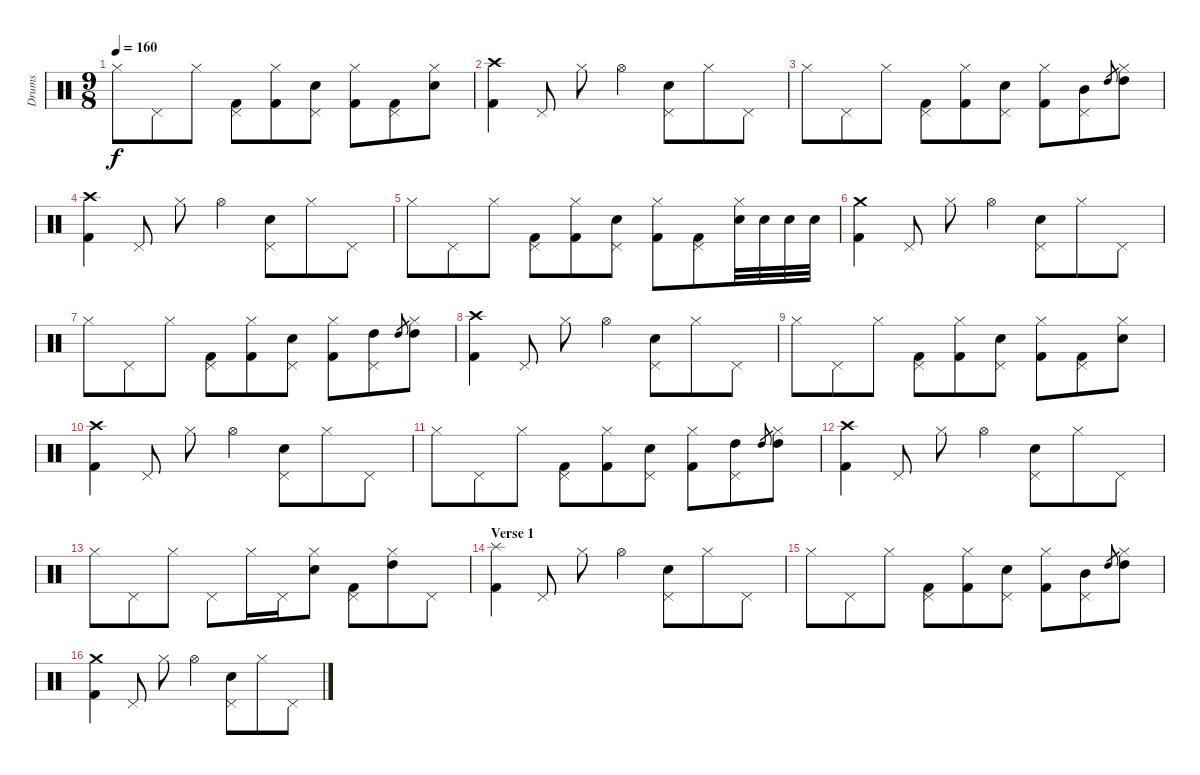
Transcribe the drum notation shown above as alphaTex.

\track ("Drums" "Drums") {instrument percussion}
\staff {score}
\articulation defaults
\ts (9 8)
\tempo 160
\clef neutral
\ks c "Hi-Hat (closed)".8{dy f} "Pedal Hi-Hat (hit)".8 "Hi-Hat (closed)".8
("Pedal Hi-Hat (hit)" "Kick (hit) 2").8 ("Hi-Hat (closed)" "Kick (hit) 2").8 ("Pedal Hi-Hat (hit)" "Electric Snare (hit)").8 ("Hi-Hat (closed)" "Kick (hit) 2").8 ("Pedal Hi-Hat (hit)" "Kick (hit) 2").8 ("Hi-Hat (closed)" "Electric Snare (hit)").8 |
("Crash high (hit)" "Kick (hit) 2").4 "Pedal Hi-Hat (hit)".8 "Hi-Hat (closed)".8 "Hi-Hat (open)".4 ("Pedal Hi-Hat (hit)" "Electric Snare (hit)").8 "Hi-Hat (closed)".8 "Pedal Hi-Hat (hit)".8 |
"Hi-Hat (closed)".8 "Pedal Hi-Hat (hit)".8 "Hi-Hat (closed)".8 ("Pedal Hi-Hat (hit)" "Kick (hit) 2").8 ("Hi-Hat (closed)" "Kick (hit) 2").8 ("Pedal Hi-Hat (hit)" "Electric Snare (hit)").8 ("Hi-Hat (closed)" "Kick (hit) 2").8 ("Pedal Hi-Hat (hit)" "Mid Tom (hit)").8 "High Tom (hit)".8{gr} ("Hi-Hat (closed)" "High Tom (hit)").8 |
("Crash high (hit)" "Kick (hit) 2").4 "Pedal Hi-Hat (hit)".8 "Hi-Hat (closed)".8 "Hi-Hat (open)".4 ("Pedal Hi-Hat (hit)" "Electric Snare (hit)").8 "Hi-Hat (closed)".8 "Pedal Hi-Hat (hit)".8 |
"Hi-Hat (closed)".8 "Pedal Hi-Hat (hit)".8 "Hi-Hat (closed)".8 ("Pedal Hi-Hat (hit)" "Kick (hit) 2").8 ("Hi-Hat (closed)" "Kick (hit) 2").8 ("Pedal Hi-Hat (hit)" "Electric Snare (hit)").8 ("Hi-Hat (closed)" "Kick (hit) 2").8 ("Pedal Hi-Hat (hit)" "Kick (hit) 2").8 ("Hi-Hat (closed)" "Electric Snare (hit)").32 "Electric Snare (hit)".32 "Electric Snare (hit)".32 "Electric Snare (hit)".32 |
("Crash medium (hit)" "Kick (hit) 2").4 "Pedal Hi-Hat (hit)".8 "Hi-Hat (closed)".8 "Hi-Hat (open)".4 ("Pedal Hi-Hat (hit)" "Electric Snare (hit)").8 "Hi-Hat (closed)".8 "Pedal Hi-Hat (hit)".8 |
"Hi-Hat (closed)".8 "Pedal Hi-Hat (hit)".8 "Hi-Hat (closed)".8 ("Pedal Hi-Hat (hit)" "Kick (hit) 2").8 ("Hi-Hat (closed)" "Kick (hit) 2").8 ("Pedal Hi-Hat (hit)" "Electric Snare (hit)").8 ("Hi-Hat (closed)" "Kick (hit) 2").8 ("Pedal Hi-Hat (hit)" "High Tom (hit)").8 "High Tom (hit)".8{gr} ("Hi-Hat (closed)" "High Tom (hit)").8 |
("Crash high (hit)" "Kick (hit) 2").4 "Pedal Hi-Hat (hit)".8 "Hi-Hat (closed)".8 "Hi-Hat (open)".4 ("Pedal Hi-Hat (hit)" "Electric Snare (hit)").8 "Hi-Hat (closed)".8 "Pedal Hi-Hat (hit)".8 |
"Hi-Hat (closed)".8 "Pedal Hi-Hat (hit)".8 "Hi-Hat (closed)".8 ("Pedal Hi-Hat (hit)" "Kick (hit) 2").8 ("Hi-Hat (closed)" "Kick (hit) 2").8 ("Pedal Hi-Hat (hit)" "Electric Snare (hit)").8 ("Hi-Hat (closed)" "Kick (hit) 2").8 ("Pedal Hi-Hat (hit)" "Kick (hit) 2").8 ("Hi-Hat (closed)" "Electric Snare (hit)").8 |
("Crash high (hit)" "Kick (hit) 2").4 "Pedal Hi-Hat (hit)".8 "Hi-Hat (closed)".8 "Hi-Hat (open)".4 ("Pedal Hi-Hat (hit)" "Electric Snare (hit)").8 "Hi-Hat (closed)".8 "Pedal Hi-Hat (hit)".8 |
"Hi-Hat (closed)".8 "Pedal Hi-Hat (hit)".8 "Hi-Hat (closed)".8 ("Pedal Hi-Hat (hit)" "Kick (hit) 2").8 ("Hi-Hat (closed)" "Kick (hit) 2").8 ("Pedal Hi-Hat (hit)" "Electric Snare (hit)").8 ("Hi-Hat (closed)" "Kick (hit) 2").8 ("Pedal Hi-Hat (hit)" "High Tom (hit)").8 "High Tom (hit)".8{gr} ("Hi-Hat (closed)" "High Tom (hit)").8 |
("Crash high (hit)" "Kick (hit) 2").4 "Pedal Hi-Hat (hit)".8 "Hi-Hat (closed)".8 "Hi-Hat (open)".4 ("Pedal Hi-Hat (hit)" "Electric Snare (hit)").8 "Hi-Hat (closed)".8 "Pedal Hi-Hat (hit)".8 |
"Hi-Hat (closed)".8 "Pedal Hi-Hat (hit)".8 "Hi-Hat (closed)".8 "Pedal Hi-Hat (hit)".8 "Hi-Hat (closed)".16 "Pedal Hi-Hat (hit)".16 ("Hi-Hat (closed)" "Electric Snare (hit)").8 ("Pedal Hi-Hat (hit)" "Kick (hit) 2").8 ("Hi-Hat (closed)" "High Tom (hit)").8 "Pedal Hi-Hat (hit)".8 |
\section ("" "Verse 1")
("Splash (hit)" "Kick (hit) 2").4 "Pedal Hi-Hat (hit)".8 "Hi-Hat (closed)".8 "Hi-Hat (open)".4 ("Pedal Hi-Hat (hit)" "Electric Snare (hit)").8 "Hi-Hat (closed)".8 "Pedal Hi-Hat (hit)".8 |
"Hi-Hat (closed)".8 "Pedal Hi-Hat (hit)".8 "Hi-Hat (closed)".8 ("Pedal Hi-Hat (hit)" "Kick (hit) 2").8 ("Hi-Hat (closed)" "Kick (hit) 2").8 ("Pedal Hi-Hat (hit)" "Electric Snare (hit)").8 ("Hi-Hat (closed)" "Kick (hit) 2").8 ("Pedal Hi-Hat (hit)" "Mid Tom (hit)").8 "High Tom (hit)".8{gr} ("Hi-Hat (closed)" "High Tom (hit)").8 |
("Crash medium (hit)" "Kick (hit) 2").4 "Pedal Hi-Hat (hit)".8 "Hi-Hat (closed)".8 "Hi-Hat (open)".4 ("Pedal Hi-Hat (hit)" "Electric Snare (hit)").8 "Hi-Hat (closed)".8 "Pedal Hi-Hat (hit)".8
